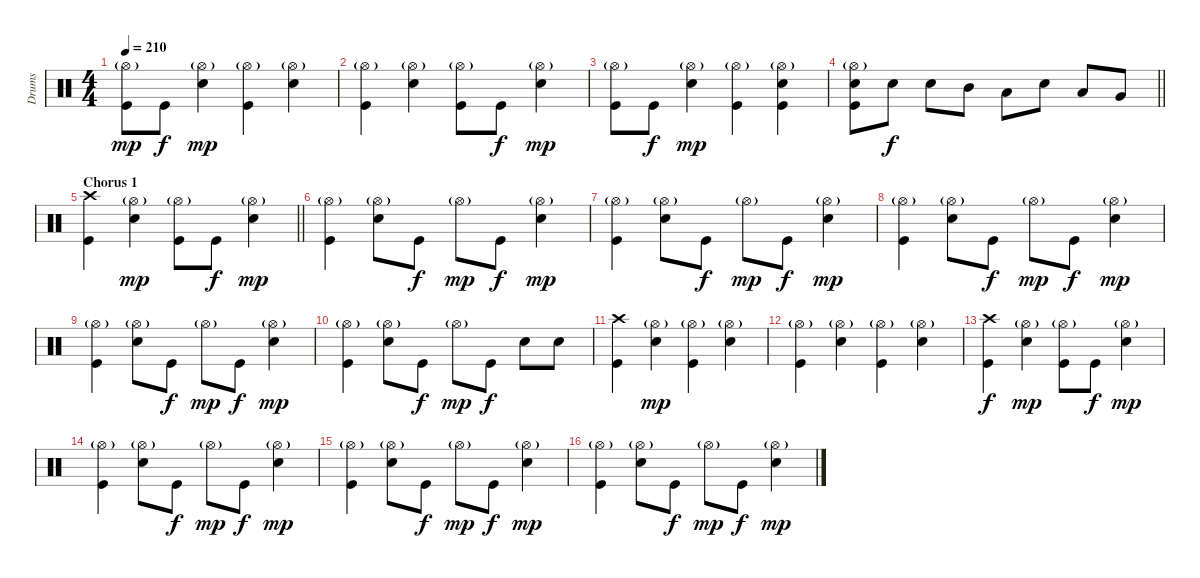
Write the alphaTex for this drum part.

\track ("Drums" "Drums") {instrument percussion}
\staff {score}
\articulation defaults
\ts (4 4)
\tempo 210
\clef neutral
\ks c
("Hi-Hat (open)"{g} "Kick (hit)").8{dy mp} "Kick (hit)".8{dy f} ("Hi-Hat (open)"{g} "Snare (hit) 2").4{dy mp} ("Hi-Hat (open)"{g} "Kick (hit)").4 ("Hi-Hat (open)"{g} "Snare (hit) 2").4 |
("Hi-Hat (open)"{g} "Kick (hit)").4 ("Hi-Hat (open)"{g} "Snare (hit) 2").4 ("Hi-Hat (open)"{g} "Kick (hit)").8 "Kick (hit)".8{dy f} ("Hi-Hat (open)"{g} "Snare (hit) 2").4{dy mp} |
("Hi-Hat (open)"{g} "Kick (hit)").8 "Kick (hit)".8{dy f} ("Hi-Hat (open)"{g} "Snare (hit) 2").4{dy mp} ("Hi-Hat (open)"{g} "Kick (hit)").4 ("Hi-Hat (open)"{g} "Snare (hit) 2" "Kick (hit)").4 |
\barLineRight lightlight
("Hi-Hat (open)"{g} "Snare (hit) 2" "Kick (hit)").8 "Snare (hit) 2".8{dy f} "Snare (hit) 2".8 "Mid Tom (hit)".8 "Low Tom (hit)".8 "Snare (hit) 2".8 "Low Tom (hit)".8 "Very Low Tom (hit)".8 |
\section ("" "Chorus 1")
\barLineRight lightlight
("Crash high (hit)" "Kick (hit)").4 ("Hi-Hat (open)"{g} "Snare (hit) 2").4{dy mp} ("Hi-Hat (open)"{g} "Kick (hit)").8 "Kick (hit)".8{dy f} ("Hi-Hat (open)"{g} "Snare (hit) 2").4{dy mp} |
("Hi-Hat (open)"{g} "Kick (hit)").4 ("Hi-Hat (open)"{g} "Snare (hit) 2").8 "Kick (hit)".8{dy f} "Hi-Hat (open)"{g}.8{dy mp} "Kick (hit)".8{dy f} ("Hi-Hat (open)"{g} "Snare (hit) 2").4{dy mp} |
("Hi-Hat (open)"{g} "Kick (hit)").4 ("Hi-Hat (open)"{g} "Snare (hit) 2").8 "Kick (hit)".8{dy f} "Hi-Hat (open)"{g}.8{dy mp} "Kick (hit)".8{dy f} ("Hi-Hat (open)"{g} "Snare (hit) 2").4{dy mp} |
("Hi-Hat (open)"{g} "Kick (hit)").4 ("Hi-Hat (open)"{g} "Snare (hit) 2").8 "Kick (hit)".8{dy f} "Hi-Hat (open)"{g}.8{dy mp} "Kick (hit)".8{dy f} ("Hi-Hat (open)"{g} "Snare (hit) 2").4{dy mp} |
("Hi-Hat (open)"{g} "Kick (hit)").4 ("Hi-Hat (open)"{g} "Snare (hit) 2").8 "Kick (hit)".8{dy f} "Hi-Hat (open)"{g}.8{dy mp} "Kick (hit)".8{dy f} ("Hi-Hat (open)"{g} "Snare (hit) 2").4{dy mp} |
("Hi-Hat (open)"{g} "Kick (hit)").4 ("Hi-Hat (open)"{g} "Snare (hit) 2").8 "Kick (hit)".8{dy f} "Hi-Hat (open)"{g}.8{dy mp} "Kick (hit)".8{dy f} "Snare (hit) 2".8 "Snare (hit) 2".8 |
("Crash high (hit)" "Kick (hit)").4 ("Hi-Hat (open)"{g} "Snare (hit) 2").4{dy mp} ("Hi-Hat (open)"{g} "Kick (hit)").4 ("Hi-Hat (open)"{g} "Snare (hit) 2").4 |
("Hi-Hat (open)"{g} "Kick (hit)").4 ("Hi-Hat (open)"{g} "Snare (hit) 2").4 ("Hi-Hat (open)"{g} "Kick (hit)").4 ("Hi-Hat (open)"{g} "Snare (hit) 2").4 |
("Crash high (hit)" "Kick (hit)").4{dy f} ("Hi-Hat (open)"{g} "Snare (hit) 2").4{dy mp} ("Hi-Hat (open)"{g} "Kick (hit)").8 "Kick (hit)".8{dy f} ("Hi-Hat (open)"{g} "Snare (hit) 2").4{dy mp} |
("Hi-Hat (open)"{g} "Kick (hit)").4 ("Hi-Hat (open)"{g} "Snare (hit) 2").8 "Kick (hit)".8{dy f} "Hi-Hat (open)"{g}.8{dy mp} "Kick (hit)".8{dy f} ("Hi-Hat (open)"{g} "Snare (hit) 2").4{dy mp} |
("Hi-Hat (open)"{g} "Kick (hit)").4 ("Hi-Hat (open)"{g} "Snare (hit) 2").8 "Kick (hit)".8{dy f} "Hi-Hat (open)"{g}.8{dy mp} "Kick (hit)".8{dy f} ("Hi-Hat (open)"{g} "Snare (hit) 2").4{dy mp} |
("Hi-Hat (open)"{g} "Kick (hit)").4 ("Hi-Hat (open)"{g} "Snare (hit) 2").8 "Kick (hit)".8{dy f} "Hi-Hat (open)"{g}.8{dy mp} "Kick (hit)".8{dy f} ("Hi-Hat (open)"{g} "Snare (hit) 2").4{dy mp}
